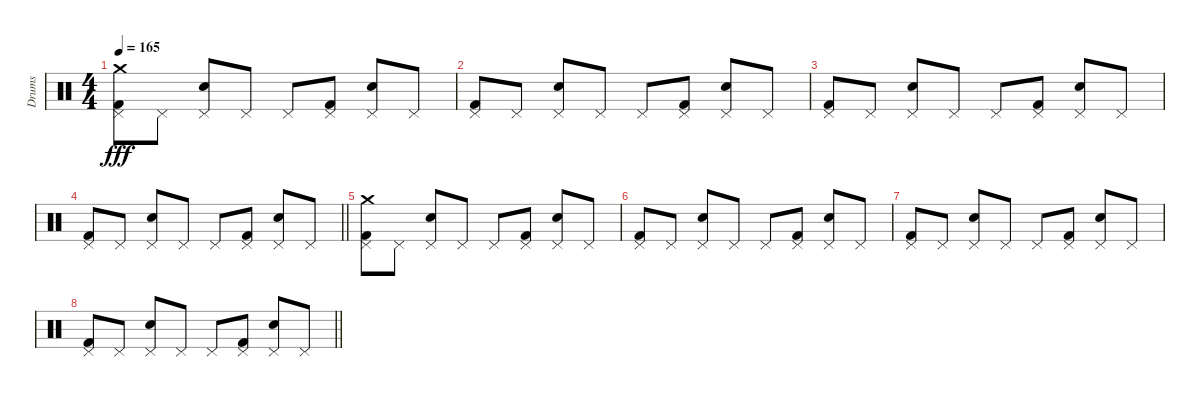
\track ("Drums" "Drums") {instrument percussion}
\staff {score}
\articulation defaults
\ts (4 4)
\tempo 165
\clef neutral
\ks c
("Crash medium (hit)" "Pedal Hi-Hat (hit)" "Kick (hit) 2").8{dy fff} "Pedal Hi-Hat (hit)".8 ("Pedal Hi-Hat (hit)" "Snare (hit) 2").8 "Pedal Hi-Hat (hit)".8 "Pedal Hi-Hat (hit)".8 ("Pedal Hi-Hat (hit)" "Kick (hit) 2").8 ("Pedal Hi-Hat (hit)" "Snare (hit) 2").8 "Pedal Hi-Hat (hit)".8 |
("Pedal Hi-Hat (hit)" "Kick (hit) 2").8 "Pedal Hi-Hat (hit)".8 ("Pedal Hi-Hat (hit)" "Snare (hit) 2").8 "Pedal Hi-Hat (hit)".8 "Pedal Hi-Hat (hit)".8 ("Pedal Hi-Hat (hit)" "Kick (hit) 2").8 ("Pedal Hi-Hat (hit)" "Snare (hit) 2").8 "Pedal Hi-Hat (hit)".8 |
("Pedal Hi-Hat (hit)" "Kick (hit) 2").8 "Pedal Hi-Hat (hit)".8 ("Pedal Hi-Hat (hit)" "Snare (hit) 2").8 "Pedal Hi-Hat (hit)".8 "Pedal Hi-Hat (hit)".8 ("Pedal Hi-Hat (hit)" "Kick (hit) 2").8 ("Pedal Hi-Hat (hit)" "Snare (hit) 2").8 "Pedal Hi-Hat (hit)".8 |
\barLineRight lightlight
("Pedal Hi-Hat (hit)" "Kick (hit) 2").8 "Pedal Hi-Hat (hit)".8 ("Pedal Hi-Hat (hit)" "Snare (hit) 2").8 "Pedal Hi-Hat (hit)".8 "Pedal Hi-Hat (hit)".8 ("Pedal Hi-Hat (hit)" "Kick (hit) 2").8 ("Pedal Hi-Hat (hit)" "Snare (hit) 2").8 "Pedal Hi-Hat (hit)".8 |
("Crash medium (hit)" "Pedal Hi-Hat (hit)" "Kick (hit) 2").8 "Pedal Hi-Hat (hit)".8 ("Pedal Hi-Hat (hit)" "Snare (hit) 2").8 "Pedal Hi-Hat (hit)".8 "Pedal Hi-Hat (hit)".8 ("Pedal Hi-Hat (hit)" "Kick (hit) 2").8 ("Pedal Hi-Hat (hit)" "Snare (hit) 2").8 "Pedal Hi-Hat (hit)".8 |
("Pedal Hi-Hat (hit)" "Kick (hit) 2").8 "Pedal Hi-Hat (hit)".8 ("Pedal Hi-Hat (hit)" "Snare (hit) 2").8 "Pedal Hi-Hat (hit)".8 "Pedal Hi-Hat (hit)".8 ("Pedal Hi-Hat (hit)" "Kick (hit) 2").8 ("Pedal Hi-Hat (hit)" "Snare (hit) 2").8 "Pedal Hi-Hat (hit)".8 |
("Pedal Hi-Hat (hit)" "Kick (hit) 2").8 "Pedal Hi-Hat (hit)".8 ("Pedal Hi-Hat (hit)" "Snare (hit) 2").8 "Pedal Hi-Hat (hit)".8 "Pedal Hi-Hat (hit)".8 ("Pedal Hi-Hat (hit)" "Kick (hit) 2").8 ("Pedal Hi-Hat (hit)" "Snare (hit) 2").8 "Pedal Hi-Hat (hit)".8 |
\barLineRight lightlight
("Pedal Hi-Hat (hit)" "Kick (hit) 2").8 "Pedal Hi-Hat (hit)".8 ("Pedal Hi-Hat (hit)" "Snare (hit) 2").8 "Pedal Hi-Hat (hit)".8 "Pedal Hi-Hat (hit)".8 ("Pedal Hi-Hat (hit)" "Kick (hit) 2").8 ("Pedal Hi-Hat (hit)" "Snare (hit) 2").8 "Pedal Hi-Hat (hit)".8
